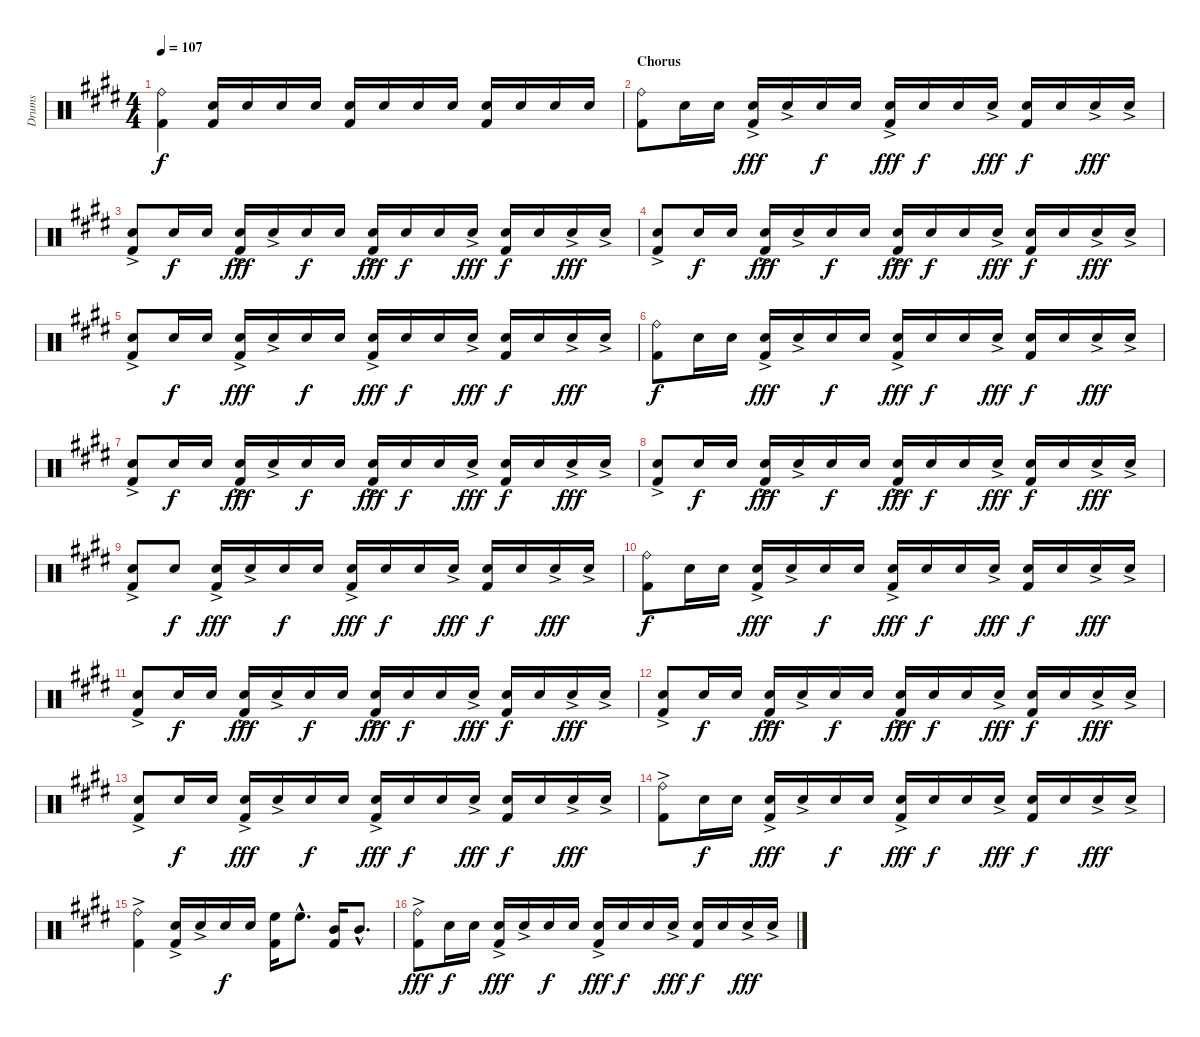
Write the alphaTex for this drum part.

\track ("Drums" "Drums") {instrument percussion}
\staff {score}
\articulation defaults
\ts (4 4)
\tempo 107
\clef neutral
\ks c#minor
("Ride (bell)" "Kick (hit) 2").4{dy f} ("Electric Snare (hit)" "Kick (hit) 2").16 "Electric Snare (hit)".16 "Electric Snare (hit)".16 "Electric Snare (hit)".16 ("Electric Snare (hit)" "Kick (hit) 2").16 "Electric Snare (hit)".16 "Electric Snare (hit)".16 "Electric Snare (hit)".16 ("Electric Snare (hit)" "Kick (hit) 2").16 "Electric Snare (hit)".16 "Electric Snare (hit)".16 "Electric Snare (hit)".16 |
\section ("" "Chorus")
("Ride (bell)" "Kick (hit) 2").8 "Electric Snare (hit)".16 "Electric Snare (hit)".16 ("Electric Snare (hit)"{ac} "Kick (hit) 2").16{dy fff} "Electric Snare (hit)"{ac}.16 "Electric Snare (hit)".16{dy f} "Electric Snare (hit)".16 ("Electric Snare (hit)"{ac} "Kick (hit) 2").16{dy fff} "Electric Snare (hit)".16{dy f} "Electric Snare (hit)".16 "Electric Snare (hit)"{ac}.16{dy fff} ("Electric Snare (hit)" "Kick (hit) 2").16{dy f} "Electric Snare (hit)".16 "Electric Snare (hit)"{ac}.16{dy fff} "Electric Snare (hit)"{ac}.16 |
("Electric Snare (hit)"{ac} "Kick (hit) 2").8 "Electric Snare (hit)".16{dy f} "Electric Snare (hit)".16 ("Electric Snare (hit)"{ac} "Kick (hit) 2").16{dy fff} "Electric Snare (hit)"{ac}.16 "Electric Snare (hit)".16{dy f} "Electric Snare (hit)".16 ("Electric Snare (hit)"{ac} "Kick (hit) 2").16{dy fff} "Electric Snare (hit)".16{dy f} "Electric Snare (hit)".16 "Electric Snare (hit)"{ac}.16{dy fff} ("Electric Snare (hit)" "Kick (hit) 2").16{dy f} "Electric Snare (hit)".16 "Electric Snare (hit)"{ac}.16{dy fff} "Electric Snare (hit)"{ac}.16 |
("Electric Snare (hit)"{ac} "Kick (hit) 2").8 "Electric Snare (hit)".16{dy f} "Electric Snare (hit)".16 ("Electric Snare (hit)"{ac} "Kick (hit) 2").16{dy fff} "Electric Snare (hit)"{ac}.16 "Electric Snare (hit)".16{dy f} "Electric Snare (hit)".16 ("Electric Snare (hit)"{ac} "Kick (hit) 2").16{dy fff} "Electric Snare (hit)".16{dy f} "Electric Snare (hit)".16 "Electric Snare (hit)"{ac}.16{dy fff} ("Electric Snare (hit)" "Kick (hit) 2").16{dy f} "Electric Snare (hit)".16 "Electric Snare (hit)"{ac}.16{dy fff} "Electric Snare (hit)"{ac}.16 |
("Electric Snare (hit)"{ac} "Kick (hit) 2").8 "Electric Snare (hit)".16{dy f} "Electric Snare (hit)".16 ("Electric Snare (hit)"{ac} "Kick (hit) 2").16{dy fff} "Electric Snare (hit)"{ac}.16 "Electric Snare (hit)".16{dy f} "Electric Snare (hit)".16 ("Electric Snare (hit)"{ac} "Kick (hit) 2").16{dy fff} "Electric Snare (hit)".16{dy f} "Electric Snare (hit)".16 "Electric Snare (hit)"{ac}.16{dy fff} ("Electric Snare (hit)" "Kick (hit) 2").16{dy f} "Electric Snare (hit)".16 "Electric Snare (hit)"{ac}.16{dy fff} "Electric Snare (hit)"{ac}.16 |
("Ride (bell)" "Kick (hit) 2").8{dy f} "Electric Snare (hit)".16 "Electric Snare (hit)".16 ("Electric Snare (hit)"{ac} "Kick (hit) 2").16{dy fff} "Electric Snare (hit)"{ac}.16 "Electric Snare (hit)".16{dy f} "Electric Snare (hit)".16 ("Electric Snare (hit)"{ac} "Kick (hit) 2").16{dy fff} "Electric Snare (hit)".16{dy f} "Electric Snare (hit)".16 "Electric Snare (hit)"{ac}.16{dy fff} ("Electric Snare (hit)" "Kick (hit) 2").16{dy f} "Electric Snare (hit)".16 "Electric Snare (hit)"{ac}.16{dy fff} "Electric Snare (hit)"{ac}.16 |
("Electric Snare (hit)"{ac} "Kick (hit) 2").8 "Electric Snare (hit)".16{dy f} "Electric Snare (hit)".16 ("Electric Snare (hit)"{ac} "Kick (hit) 2").16{dy fff} "Electric Snare (hit)"{ac}.16 "Electric Snare (hit)".16{dy f} "Electric Snare (hit)".16 ("Electric Snare (hit)"{ac} "Kick (hit) 2").16{dy fff} "Electric Snare (hit)".16{dy f} "Electric Snare (hit)".16 "Electric Snare (hit)"{ac}.16{dy fff} ("Electric Snare (hit)" "Kick (hit) 2").16{dy f} "Electric Snare (hit)".16 "Electric Snare (hit)"{ac}.16{dy fff} "Electric Snare (hit)"{ac}.16 |
("Electric Snare (hit)"{ac} "Kick (hit) 2").8 "Electric Snare (hit)".16{dy f} "Electric Snare (hit)".16 ("Electric Snare (hit)"{ac} "Kick (hit) 2").16{dy fff} "Electric Snare (hit)"{ac}.16 "Electric Snare (hit)".16{dy f} "Electric Snare (hit)".16 ("Electric Snare (hit)"{ac} "Kick (hit) 2").16{dy fff} "Electric Snare (hit)".16{dy f} "Electric Snare (hit)".16 "Electric Snare (hit)"{ac}.16{dy fff} ("Electric Snare (hit)" "Kick (hit) 2").16{dy f} "Electric Snare (hit)".16 "Electric Snare (hit)"{ac}.16{dy fff} "Electric Snare (hit)"{ac}.16 |
("Electric Snare (hit)"{ac} "Kick (hit) 2").8 "Electric Snare (hit)".8{dy f} ("Electric Snare (hit)"{ac} "Kick (hit) 2").16{dy fff} "Electric Snare (hit)"{ac}.16 "Electric Snare (hit)".16{dy f} "Electric Snare (hit)".16 ("Electric Snare (hit)"{ac} "Kick (hit) 2").16{dy fff} "Electric Snare (hit)".16{dy f} "Electric Snare (hit)".16 "Electric Snare (hit)"{ac}.16{dy fff} ("Electric Snare (hit)" "Kick (hit) 2").16{dy f} "Electric Snare (hit)".16 "Electric Snare (hit)"{ac}.16{dy fff} "Electric Snare (hit)"{ac}.16 |
("Ride (bell)" "Kick (hit) 2").8{dy f} "Electric Snare (hit)".16 "Electric Snare (hit)".16 ("Electric Snare (hit)"{ac} "Kick (hit) 2").16{dy fff} "Electric Snare (hit)"{ac}.16 "Electric Snare (hit)".16{dy f} "Electric Snare (hit)".16 ("Electric Snare (hit)"{ac} "Kick (hit) 2").16{dy fff} "Electric Snare (hit)".16{dy f} "Electric Snare (hit)".16 "Electric Snare (hit)"{ac}.16{dy fff} ("Electric Snare (hit)" "Kick (hit) 2").16{dy f} "Electric Snare (hit)".16 "Electric Snare (hit)"{ac}.16{dy fff} "Electric Snare (hit)"{ac}.16 |
("Electric Snare (hit)"{ac} "Kick (hit) 2").8 "Electric Snare (hit)".16{dy f} "Electric Snare (hit)".16 ("Electric Snare (hit)"{ac} "Kick (hit) 2").16{dy fff} "Electric Snare (hit)"{ac}.16 "Electric Snare (hit)".16{dy f} "Electric Snare (hit)".16 ("Electric Snare (hit)"{ac} "Kick (hit) 2").16{dy fff} "Electric Snare (hit)".16{dy f} "Electric Snare (hit)".16 "Electric Snare (hit)"{ac}.16{dy fff} ("Electric Snare (hit)" "Kick (hit) 2").16{dy f} "Electric Snare (hit)".16 "Electric Snare (hit)"{ac}.16{dy fff} "Electric Snare (hit)"{ac}.16 |
("Electric Snare (hit)"{ac} "Kick (hit) 2").8 "Electric Snare (hit)".16{dy f} "Electric Snare (hit)".16 ("Electric Snare (hit)"{ac} "Kick (hit) 2").16{dy fff} "Electric Snare (hit)"{ac}.16 "Electric Snare (hit)".16{dy f} "Electric Snare (hit)".16 ("Electric Snare (hit)"{ac} "Kick (hit) 2").16{dy fff} "Electric Snare (hit)".16{dy f} "Electric Snare (hit)".16 "Electric Snare (hit)"{ac}.16{dy fff} ("Electric Snare (hit)" "Kick (hit) 2").16{dy f} "Electric Snare (hit)".16 "Electric Snare (hit)"{ac}.16{dy fff} "Electric Snare (hit)"{ac}.16 |
("Electric Snare (hit)"{ac} "Kick (hit) 2").8 "Electric Snare (hit)".16{dy f} "Electric Snare (hit)".16 ("Electric Snare (hit)"{ac} "Kick (hit) 2").16{dy fff} "Electric Snare (hit)"{ac}.16 "Electric Snare (hit)".16{dy f} "Electric Snare (hit)".16 ("Electric Snare (hit)"{ac} "Kick (hit) 2").16{dy fff} "Electric Snare (hit)".16{dy f} "Electric Snare (hit)".16 "Electric Snare (hit)"{ac}.16{dy fff} ("Electric Snare (hit)" "Kick (hit) 2").16{dy f} "Electric Snare (hit)".16 "Electric Snare (hit)"{ac}.16{dy fff} "Electric Snare (hit)"{ac}.16 |
("Ride (bell)"{ac} "Kick (hit) 2").8 "Electric Snare (hit)".16{dy f} "Electric Snare (hit)".16 ("Electric Snare (hit)"{ac} "Kick (hit) 2").16{dy fff} "Electric Snare (hit)"{ac}.16 "Electric Snare (hit)".16{dy f} "Electric Snare (hit)".16 ("Electric Snare (hit)"{ac} "Kick (hit) 2").16{dy fff} "Electric Snare (hit)".16{dy f} "Electric Snare (hit)".16 "Electric Snare (hit)"{ac}.16{dy fff} ("Electric Snare (hit)" "Kick (hit) 2").16{dy f} "Electric Snare (hit)".16 "Electric Snare (hit)"{ac}.16{dy fff} "Electric Snare (hit)"{ac}.16 |
("Ride (bell)"{ac} "Kick (hit) 2").4 ("Electric Snare (hit)"{ac} "Kick (hit) 2").16 "Electric Snare (hit)"{ac}.16 "Electric Snare (hit)".16{dy f} "Electric Snare (hit)".16 ("High Floor Tom (hit)" "Kick (hit) 2").16 "High Floor Tom (hit)"{hac}.8{d} ("Mid Tom (hit)" "Kick (hit) 2").16 "Mid Tom (hit)"{hac}.8{d} |
("Ride (bell)"{ac} "Kick (hit) 2").8{dy fff} "Electric Snare (hit)".16{dy f} "Electric Snare (hit)".16 ("Electric Snare (hit)"{ac} "Kick (hit) 2").16{dy fff} "Electric Snare (hit)"{ac}.16 "Electric Snare (hit)".16{dy f} "Electric Snare (hit)".16 ("Electric Snare (hit)"{ac} "Kick (hit) 2").16{dy fff} "Electric Snare (hit)".16{dy f} "Electric Snare (hit)".16 "Electric Snare (hit)"{ac}.16{dy fff} ("Electric Snare (hit)" "Kick (hit) 2").16{dy f} "Electric Snare (hit)".16 "Electric Snare (hit)"{ac}.16{dy fff} "Electric Snare (hit)"{ac}.16
